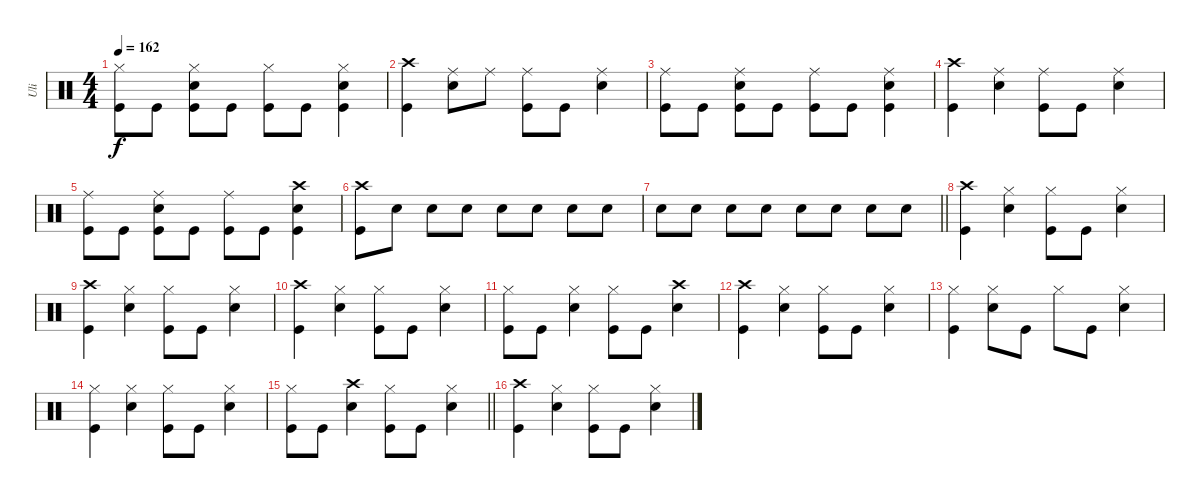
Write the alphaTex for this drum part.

\track ("Uli" "Uli") {instrument percussion}
\staff {score}
\articulation defaults
\ts (4 4)
\tempo 162
\clef neutral
\ks aminor
("Hi-Hat (closed)" "Kick (hit)").8{dy f} "Kick (hit)".8 ("Hi-Hat (closed)" "Snare (hit) 2" "Kick (hit)").8 "Kick (hit)".8 ("Hi-Hat (closed)" "Kick (hit)").8 "Kick (hit)".8 ("Hi-Hat (closed)" "Snare (hit) 2" "Kick (hit)").4 |
("Crash high (hit)" "Kick (hit)").4 ("Ride (middle)" "Snare (hit) 2").8 "Ride (middle)".8 ("Ride (middle)" "Kick (hit)").8 "Kick (hit)".8 ("Ride (middle)" "Snare (hit) 2").4 |
("Ride (middle)" "Kick (hit)").8 "Kick (hit)".8 ("Ride (middle)" "Snare (hit) 2" "Kick (hit)").8 "Kick (hit)".8 ("Ride (middle)" "Kick (hit)").8 "Kick (hit)".8 ("Ride (middle)" "Snare (hit) 2" "Kick (hit)").4 |
("Crash high (hit)" "Kick (hit)").4 ("Ride (middle)" "Snare (hit) 2").4 ("Ride (middle)" "Kick (hit)").8 "Kick (hit)".8 ("Ride (middle)" "Snare (hit) 2").4 |
("Ride (middle)" "Kick (hit)").8 "Kick (hit)".8 ("Ride (middle)" "Snare (hit) 2" "Kick (hit)").8 "Kick (hit)".8 ("Ride (middle)" "Kick (hit)").8 "Kick (hit)".8 ("Crash high (hit)" "Snare (hit) 2" "Kick (hit)").4 |
("Crash high (hit)" "Kick (hit)").8 "Snare (hit) 2".8 "Snare (hit) 2".8 "Snare (hit) 2".8 "Snare (hit) 2".8 "Snare (hit) 2".8 "Snare (hit) 2".8 "Snare (hit) 2".8 |
\barLineRight lightlight "Snare (hit) 2".8 "Snare (hit) 2".8 "Snare (hit) 2".8 "Snare (hit) 2".8 "Snare (hit) 2".8 "Snare (hit) 2".8 "Snare (hit) 2".8 "Snare (hit) 2".8
|
("Crash high (hit)" "Kick (hit)").4 ("Hi-Hat (closed)" "Snare (hit) 2").4 ("Hi-Hat (closed)" "Kick (hit)").8 "Kick (hit)".8 ("Hi-Hat (closed)" "Snare (hit) 2").4 |
("Crash high (hit)" "Kick (hit)").4 ("Hi-Hat (closed)" "Snare (hit) 2").4 ("Hi-Hat (closed)" "Kick (hit)").8 "Kick (hit)".8 ("Hi-Hat (closed)" "Snare (hit) 2").4 |
("Crash high (hit)" "Kick (hit)").4 ("Hi-Hat (closed)" "Snare (hit) 2").4 ("Hi-Hat (closed)" "Kick (hit)").8 "Kick (hit)".8 ("Hi-Hat (closed)" "Snare (hit) 2").4 |
("Hi-Hat (closed)" "Kick (hit)").8 "Kick (hit)".8 ("Hi-Hat (closed)" "Snare (hit) 2").4 ("Hi-Hat (closed)" "Kick (hit)").8 "Kick (hit)".8 ("Crash high (hit)" "Snare (hit) 2").4 |
("Crash high (hit)" "Kick (hit)").4 ("Hi-Hat (closed)" "Snare (hit) 2").4 ("Hi-Hat (closed)" "Kick (hit)").8 "Kick (hit)".8 ("Hi-Hat (closed)" "Snare (hit) 2").4 |
("Hi-Hat (closed)" "Kick (hit)").4 ("Hi-Hat (closed)" "Snare (hit) 2").8 "Kick (hit)".8 "Hi-Hat (closed)".8 "Kick (hit)".8 ("Hi-Hat (closed)" "Snare (hit) 2").4 |
("Hi-Hat (closed)" "Kick (hit)").4 ("Hi-Hat (closed)" "Snare (hit) 2").4 ("Hi-Hat (closed)" "Kick (hit)").8 "Kick (hit)".8 ("Hi-Hat (closed)" "Snare (hit) 2").4 |
\barLineRight lightlight
("Hi-Hat (closed)" "Kick (hit)").8 "Kick (hit)".8 ("Crash high (hit)" "Snare (hit) 2").4 ("Hi-Hat (closed)" "Kick (hit)").8 "Kick (hit)".8 ("Hi-Hat (closed)" "Snare (hit) 2").4 |
("Crash high (hit)" "Kick (hit)").4 ("Hi-Hat (closed)" "Snare (hit) 2").4 ("Hi-Hat (closed)" "Kick (hit)").8 "Kick (hit)".8 ("Hi-Hat (closed)" "Snare (hit) 2").4
